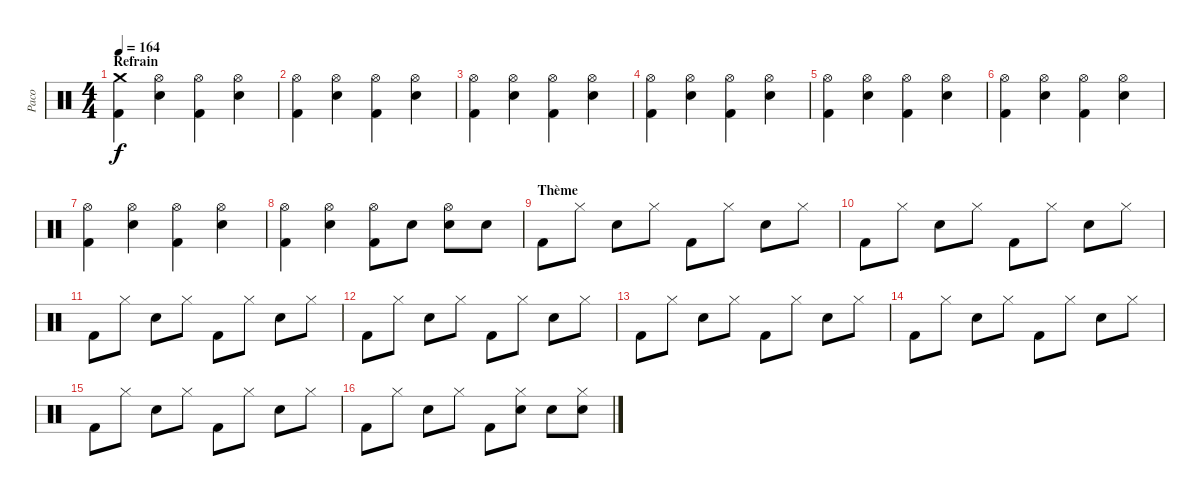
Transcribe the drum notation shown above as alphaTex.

\track ("Paco" "Paco") {instrument percussion}
\staff {score}
\articulation defaults
\ts (4 4)
\section ("" "Refrain")
\tempo 164
\clef neutral
\ks c
("Crash medium (hit)" "Kick (hit) 2").4{dy f} ("Hi-Hat (open)" "Electric Snare (hit)").4 ("Hi-Hat (open)" "Kick (hit) 2").4 ("Hi-Hat (open)" "Electric Snare (hit)").4 |
("Hi-Hat (open)" "Kick (hit) 2").4 ("Hi-Hat (open)" "Electric Snare (hit)").4 ("Hi-Hat (open)" "Kick (hit) 2").4 ("Hi-Hat (open)" "Electric Snare (hit)").4 |
("Hi-Hat (open)" "Kick (hit) 2").4 ("Hi-Hat (open)" "Electric Snare (hit)").4 ("Hi-Hat (open)" "Kick (hit) 2").4 ("Hi-Hat (open)" "Electric Snare (hit)").4 |
("Hi-Hat (open)" "Kick (hit) 2").4 ("Hi-Hat (open)" "Electric Snare (hit)").4 ("Hi-Hat (open)" "Kick (hit) 2").4 ("Hi-Hat (open)" "Electric Snare (hit)").4 |
("Hi-Hat (open)" "Kick (hit) 2").4 ("Hi-Hat (open)" "Electric Snare (hit)").4 ("Hi-Hat (open)" "Kick (hit) 2").4 ("Hi-Hat (open)" "Electric Snare (hit)").4 |
("Hi-Hat (open)" "Kick (hit) 2").4 ("Hi-Hat (open)" "Electric Snare (hit)").4 ("Hi-Hat (open)" "Kick (hit) 2").4 ("Hi-Hat (open)" "Electric Snare (hit)").4 |
("Hi-Hat (open)" "Kick (hit) 2").4 ("Hi-Hat (open)" "Electric Snare (hit)").4 ("Hi-Hat (open)" "Kick (hit) 2").4 ("Hi-Hat (open)" "Electric Snare (hit)").4 |
("Hi-Hat (open)" "Kick (hit) 2").4 ("Hi-Hat (open)" "Electric Snare (hit)").4 ("Hi-Hat (open)" "Kick (hit) 2").8 "Electric Snare (hit)".8 ("Hi-Hat (open)" "Electric Snare (hit)").8 "Electric Snare (hit)".8 |
\section ("" "Thème")
"Kick (hit) 2".8 "Hi-Hat (closed)".8 "Electric Snare (hit)".8 "Hi-Hat (closed)".8 "Kick (hit) 2".8 "Hi-Hat (closed)".8 "Electric Snare (hit)".8 "Hi-Hat (closed)".8 |
"Kick (hit) 2".8 "Hi-Hat (closed)".8 "Electric Snare (hit)".8 "Hi-Hat (closed)".8 "Kick (hit) 2".8 "Hi-Hat (closed)".8 "Electric Snare (hit)".8 "Hi-Hat (closed)".8 |
"Kick (hit) 2".8 "Hi-Hat (closed)".8 "Electric Snare (hit)".8 "Hi-Hat (closed)".8 "Kick (hit) 2".8 "Hi-Hat (closed)".8 "Electric Snare (hit)".8 "Hi-Hat (closed)".8 |
"Kick (hit) 2".8 "Hi-Hat (closed)".8 "Electric Snare (hit)".8 "Hi-Hat (closed)".8 "Kick (hit) 2".8 "Hi-Hat (closed)".8 "Electric Snare (hit)".8 "Hi-Hat (closed)".8 |
"Kick (hit) 2".8 "Hi-Hat (closed)".8 "Electric Snare (hit)".8 "Hi-Hat (closed)".8 "Kick (hit) 2".8 "Hi-Hat (closed)".8 "Electric Snare (hit)".8 "Hi-Hat (closed)".8 |
"Kick (hit) 2".8 "Hi-Hat (closed)".8 "Electric Snare (hit)".8 "Hi-Hat (closed)".8 "Kick (hit) 2".8 "Hi-Hat (closed)".8 "Electric Snare (hit)".8 "Hi-Hat (closed)".8 |
"Kick (hit) 2".8 "Hi-Hat (closed)".8 "Electric Snare (hit)".8 "Hi-Hat (closed)".8 "Kick (hit) 2".8 "Hi-Hat (closed)".8 "Electric Snare (hit)".8 "Hi-Hat (closed)".8 |
"Kick (hit) 2".8 "Hi-Hat (closed)".8 "Electric Snare (hit)".8 "Hi-Hat (closed)".8 "Kick (hit) 2".8 ("Hi-Hat (closed)" "Electric Snare (hit)").8 "Electric Snare (hit)".8 ("Hi-Hat (closed)" "Electric Snare (hit)").8
